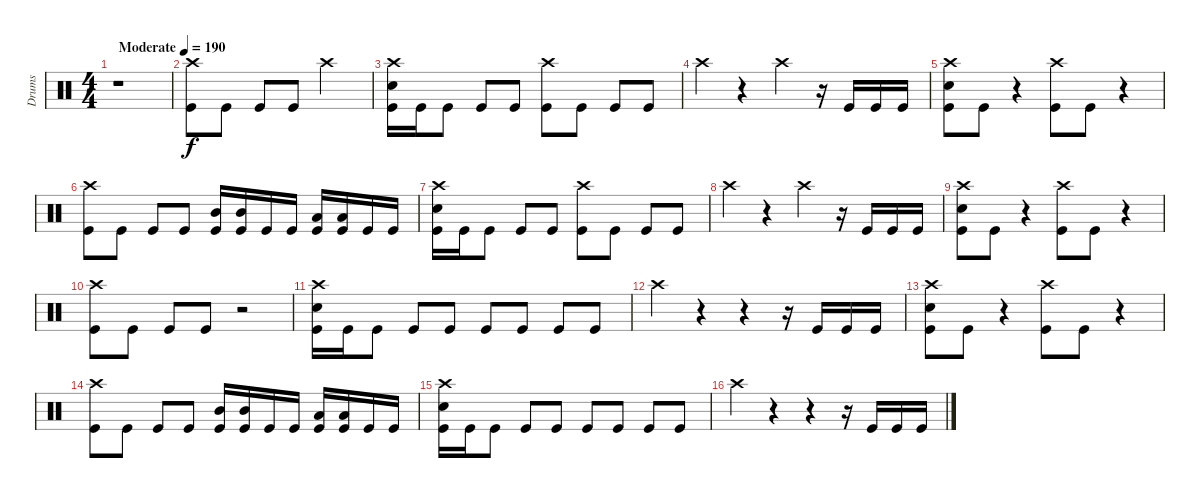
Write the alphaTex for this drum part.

\track ("Drums" "Drums") {instrument percussion}
\staff {score}
\articulation defaults
\ts (4 4)
\tempo (190 "Moderate")
\clef neutral
\ks c
r.1{dy f} |
("Crash high (hit)" "Kick (hit)").8 "Kick (hit)".8 "Kick (hit)".8 "Kick (hit)".8 "Crash high (hit)".2 |
("Crash high (hit)" "Snare (hit) 2" "Kick (hit)").16 "Kick (hit)".16 "Kick (hit)".8 "Kick (hit)".8 "Kick (hit)".8 ("Crash high (hit)" "Kick (hit)").8 "Kick (hit)".8 "Kick (hit)".8 "Kick (hit)".8 |
"Crash high (hit)".4 r.4 "Crash high (hit)".4 r.16 "Kick (hit)".16 "Kick (hit)".16 "Kick (hit)".16 |
("Crash high (hit)" "Snare (hit) 2" "Kick (hit)").8 "Kick (hit)".8 r.4 ("Crash high (hit)" "Kick (hit)").8 "Kick (hit)".8 r.4 |
("Crash high (hit)" "Kick (hit)").8 "Kick (hit)".8 "Kick (hit)".8 "Kick (hit)".8 ("Mid Tom (hit)" "Kick (hit)").16 ("Mid Tom (hit)" "Kick (hit)").16 "Kick (hit)".16 "Kick (hit)".16 ("Low Tom (hit)" "Kick (hit)").16 ("Low Tom (hit)" "Kick (hit)").16 "Kick (hit)".16 "Kick (hit)".16 |
("Crash high (hit)" "Snare (hit) 2" "Kick (hit)").16 "Kick (hit)".16 "Kick (hit)".8 "Kick (hit)".8 "Kick (hit)".8 ("Crash high (hit)" "Kick (hit)").8 "Kick (hit)".8 "Kick (hit)".8 "Kick (hit)".8 |
"Crash high (hit)".4 r.4 "Crash high (hit)".4 r.16 "Kick (hit)".16 "Kick (hit)".16 "Kick (hit)".16 |
("Crash high (hit)" "Snare (hit) 2" "Kick (hit)").8 "Kick (hit)".8 r.4 ("Crash high (hit)" "Kick (hit)").8 "Kick (hit)".8 r.4 |
("Crash high (hit)" "Kick (hit)").8 "Kick (hit)".8 "Kick (hit)".8 "Kick (hit)".8 r.2 |
("Crash high (hit)" "Snare (hit) 2" "Kick (hit)").16 "Kick (hit)".16 "Kick (hit)".8 "Kick (hit)".8 "Kick (hit)".8 "Kick (hit)".8 "Kick (hit)".8 "Kick (hit)".8 "Kick (hit)".8 |
"Crash high (hit)".4 r.4 r.4 r.16 "Kick (hit)".16 "Kick (hit)".16 "Kick (hit)".16 |
("Crash high (hit)" "Snare (hit) 2" "Kick (hit)").8 "Kick (hit)".8 r.4 ("Crash high (hit)" "Kick (hit)").8 "Kick (hit)".8 r.4 |
("Crash high (hit)" "Kick (hit)").8 "Kick (hit)".8 "Kick (hit)".8 "Kick (hit)".8 ("Mid Tom (hit)" "Kick (hit)").16 ("Mid Tom (hit)" "Kick (hit)").16 "Kick (hit)".16 "Kick (hit)".16 ("Low Tom (hit)" "Kick (hit)").16 ("Low Tom (hit)" "Kick (hit)").16 "Kick (hit)".16 "Kick (hit)".16 |
("Crash high (hit)" "Snare (hit) 2" "Kick (hit)").16 "Kick (hit)".16 "Kick (hit)".8 "Kick (hit)".8 "Kick (hit)".8 "Kick (hit)".8 "Kick (hit)".8 "Kick (hit)".8 "Kick (hit)".8 |
"Crash high (hit)".4 r.4 r.4 r.16 "Kick (hit)".16 "Kick (hit)".16 "Kick (hit)".16
